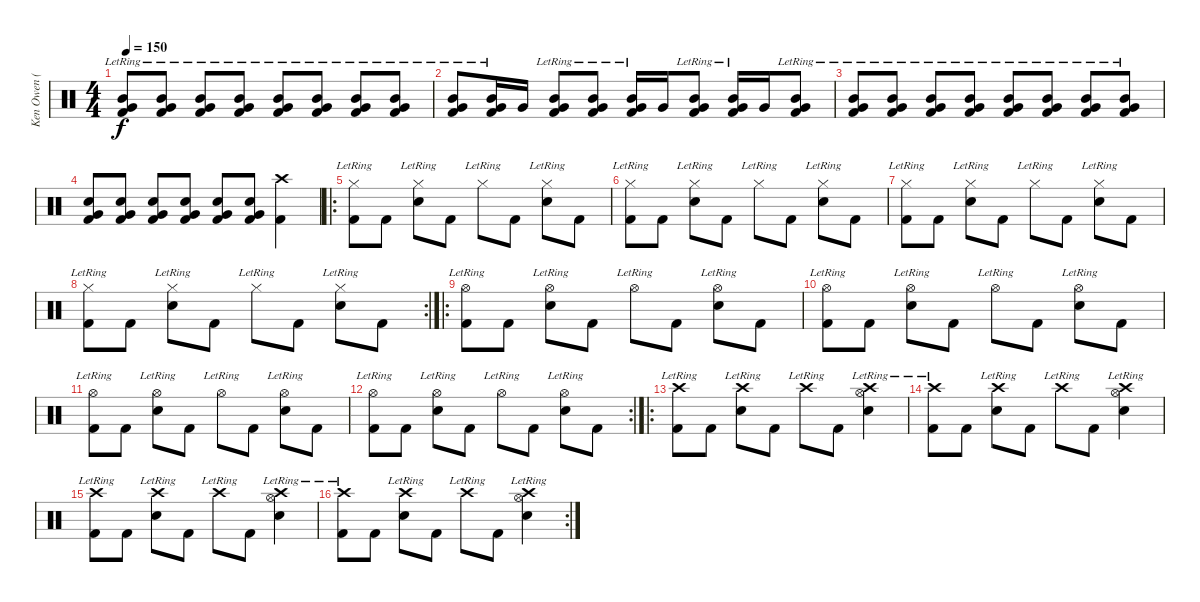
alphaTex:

\track ("Ken Owen (Drums)" "Ken Owen (") {instrument percussion}
\staff {score}
\articulation defaults
\ts (4 4)
\tempo 150
\clef neutral
\ks c
("Very Low Tom (hit)" "Mid Tom (hit)"{lr} "Kick (hit) 2").8{dy f} ("Very Low Tom (hit)" "Mid Tom (hit)"{lr} "Kick (hit) 2").8 ("Very Low Tom (hit)" "Mid Tom (hit)"{lr} "Kick (hit) 2").8 ("Very Low Tom (hit)" "Mid Tom (hit)"{lr} "Kick (hit) 2").8 ("Very Low Tom (hit)" "Mid Tom (hit)"{lr} "Kick (hit) 2").8 ("Very Low Tom (hit)" "Mid Tom (hit)"{lr} "Kick (hit) 2").8 ("Very Low Tom (hit)" "Mid Tom (hit)"{lr} "Kick (hit) 2").8 ("Very Low Tom (hit)" "Mid Tom (hit)"{lr} "Kick (hit) 2").8 |
("Very Low Tom (hit)" "Mid Tom (hit)"{lr} "Kick (hit) 2").8 ("Very Low Tom (hit)" "Mid Tom (hit)"{lr} "Kick (hit) 2").16 "Very Low Tom (hit)".16 ("Very Low Tom (hit)" "Mid Tom (hit)"{lr} "Kick (hit) 2").8 ("Very Low Tom (hit)" "Mid Tom (hit)"{lr} "Kick (hit) 2").8 ("Very Low Tom (hit)" "Mid Tom (hit)"{lr} "Kick (hit) 2").16 "Very Low Tom (hit)".16 ("Very Low Tom (hit)" "Mid Tom (hit)"{lr} "Kick (hit) 2").8 ("Very Low Tom (hit)" "Mid Tom (hit)"{lr} "Kick (hit) 2").16 "Very Low Tom (hit)".16 ("Very Low Tom (hit)" "Mid Tom (hit)"{lr} "Kick (hit) 2").8 |
("Very Low Tom (hit)" "Mid Tom (hit)"{lr} "Kick (hit) 2").8 ("Very Low Tom (hit)" "Mid Tom (hit)"{lr} "Kick (hit) 2").8 ("Very Low Tom (hit)" "Mid Tom (hit)"{lr} "Kick (hit) 2").8 ("Very Low Tom (hit)" "Mid Tom (hit)"{lr} "Kick (hit) 2").8 ("Very Low Tom (hit)" "Mid Tom (hit)"{lr} "Kick (hit) 2").8 ("Very Low Tom (hit)" "Mid Tom (hit)"{lr} "Kick (hit) 2").8 ("Very Low Tom (hit)" "Mid Tom (hit)"{lr} "Kick (hit) 2").8 ("Very Low Tom (hit)" "Mid Tom (hit)"{lr} "Kick (hit) 2").8 |
("Very Low Tom (hit)" "Snare (hit) 2" "Kick (hit) 2").8 ("Very Low Tom (hit)" "Snare (hit) 2" "Kick (hit) 2").8 ("Very Low Tom (hit)" "Snare (hit) 2" "Kick (hit) 2").8 ("Very Low Tom (hit)" "Snare (hit) 2" "Kick (hit) 2").8 ("Very Low Tom (hit)" "Snare (hit) 2" "Kick (hit) 2").8 ("Very Low Tom (hit)" "Snare (hit) 2" "Kick (hit) 2").8 ("Crash high (hit)" "Kick (hit) 2").4 |
\ro
("Hi-Hat (closed)"{lr} "Kick (hit) 2").8 "Kick (hit) 2".8 ("Hi-Hat (closed)"{lr} "Snare (hit) 2").8 "Kick (hit) 2".8 "Hi-Hat (closed)"{lr}.8 "Kick (hit) 2".8 ("Hi-Hat (closed)"{lr} "Snare (hit) 2").8 "Kick (hit) 2".8 |
("Hi-Hat (closed)"{lr} "Kick (hit) 2").8 "Kick (hit) 2".8 ("Hi-Hat (closed)"{lr} "Snare (hit) 2").8 "Kick (hit) 2".8 "Hi-Hat (closed)"{lr}.8 "Kick (hit) 2".8 ("Hi-Hat (closed)"{lr} "Snare (hit) 2").8 "Kick (hit) 2".8 |
("Hi-Hat (closed)"{lr} "Kick (hit) 2").8 "Kick (hit) 2".8 ("Hi-Hat (closed)"{lr} "Snare (hit) 2").8 "Kick (hit) 2".8 "Hi-Hat (closed)"{lr}.8 "Kick (hit) 2".8 ("Hi-Hat (closed)"{lr} "Snare (hit) 2").8 "Kick (hit) 2".8 |
\rc 2
("Hi-Hat (closed)"{lr} "Kick (hit) 2").8 "Kick (hit) 2".8 ("Hi-Hat (closed)"{lr} "Snare (hit) 2").8 "Kick (hit) 2".8 "Hi-Hat (closed)"{lr}.8 "Kick (hit) 2".8 ("Hi-Hat (closed)"{lr} "Snare (hit) 2").8 "Kick (hit) 2".8 |
\ro
("Hi-Hat (open)"{lr} "Kick (hit) 2").8 "Kick (hit) 2".8 ("Hi-Hat (open)"{lr} "Snare (hit) 2").8 "Kick (hit) 2".8 "Hi-Hat (open)"{lr}.8 "Kick (hit) 2".8 ("Hi-Hat (open)"{lr} "Snare (hit) 2").8 "Kick (hit) 2".8 |
("Hi-Hat (open)"{lr} "Kick (hit) 2").8 "Kick (hit) 2".8 ("Hi-Hat (open)"{lr} "Snare (hit) 2").8 "Kick (hit) 2".8 "Hi-Hat (open)"{lr}.8 "Kick (hit) 2".8 ("Hi-Hat (open)"{lr} "Snare (hit) 2").8 "Kick (hit) 2".8 |
("Hi-Hat (open)"{lr} "Kick (hit) 2").8 "Kick (hit) 2".8 ("Hi-Hat (open)"{lr} "Snare (hit) 2").8 "Kick (hit) 2".8 "Hi-Hat (open)"{lr}.8 "Kick (hit) 2".8 ("Hi-Hat (open)"{lr} "Snare (hit) 2").8 "Kick (hit) 2".8 |
\rc 2
("Hi-Hat (open)"{lr} "Kick (hit) 2").8 "Kick (hit) 2".8 ("Hi-Hat (open)"{lr} "Snare (hit) 2").8 "Kick (hit) 2".8 "Hi-Hat (open)"{lr}.8 "Kick (hit) 2".8 ("Hi-Hat (open)"{lr} "Snare (hit) 2").8 "Kick (hit) 2".8 |
\ro
("Crash high (hit)"{lr} "Kick (hit) 2").8 "Kick (hit) 2".8 ("Crash high (hit)"{lr} "Snare (hit) 2").8 "Kick (hit) 2".8 "Crash high (hit)"{lr}.8 "Kick (hit) 2".8 ("Crash high (hit)"{lr} "Hi-Hat (open)"{lr} "Snare (hit) 2").4 |
("Crash high (hit)"{lr} "Kick (hit) 2").8 "Kick (hit) 2".8 ("Crash high (hit)"{lr} "Snare (hit) 2").8 "Kick (hit) 2".8 "Crash high (hit)"{lr}.8 "Kick (hit) 2".8 ("Crash high (hit)"{lr} "Hi-Hat (open)"{lr} "Snare (hit) 2").4 |
("Crash high (hit)"{lr} "Kick (hit) 2").8 "Kick (hit) 2".8 ("Crash high (hit)"{lr} "Snare (hit) 2").8 "Kick (hit) 2".8 "Crash high (hit)"{lr}.8 "Kick (hit) 2".8 ("Crash high (hit)"{lr} "Hi-Hat (open)"{lr} "Snare (hit) 2").4 |
\rc 2
("Crash high (hit)"{lr} "Kick (hit) 2").8 "Kick (hit) 2".8 ("Crash high (hit)"{lr} "Snare (hit) 2").8 "Kick (hit) 2".8 "Crash high (hit)"{lr}.8 "Kick (hit) 2".8 ("Crash high (hit)"{lr} "Hi-Hat (open)"{lr} "Snare (hit) 2").4
